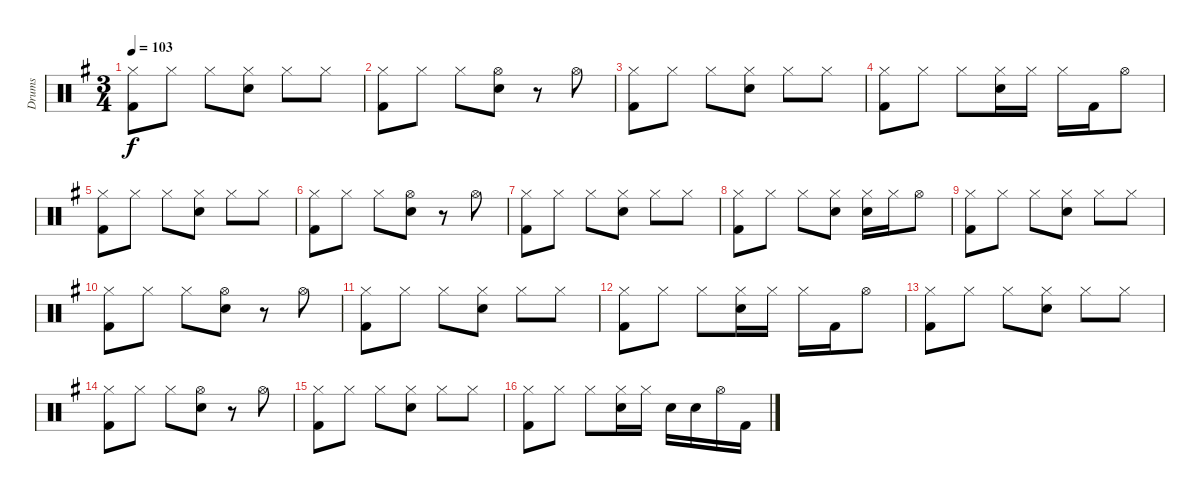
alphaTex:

\track ("Drums" "Drums") {instrument percussion}
\staff {score}
\articulation defaults
\ts (3 4)
\tempo 103
\clef neutral
\ks eminor
("Hi-Hat (closed)" "Kick (hit) 2").8{dy f} "Hi-Hat (closed)".8 "Hi-Hat (closed)".8 ("Hi-Hat (closed)" "Electric Snare (hit)").8 "Hi-Hat (closed)".8 "Hi-Hat (closed)".8 |
("Hi-Hat (closed)" "Kick (hit) 2").8 "Hi-Hat (closed)".8 "Hi-Hat (closed)".8 ("Hi-Hat (open)" "Electric Snare (hit)").8 r.8 "Hi-Hat (open)".8 |
("Hi-Hat (closed)" "Kick (hit) 2").8 "Hi-Hat (closed)".8 "Hi-Hat (closed)".8 ("Hi-Hat (closed)" "Electric Snare (hit)").8 "Hi-Hat (closed)".8 "Hi-Hat (closed)".8 |
("Hi-Hat (closed)" "Kick (hit) 2").8 "Hi-Hat (closed)".8 "Hi-Hat (closed)".8 ("Hi-Hat (closed)" "Electric Snare (hit)").16 "Hi-Hat (closed)".16 "Hi-Hat (closed)".16 "Kick (hit) 2".16 "Hi-Hat (open)".8 |
("Hi-Hat (closed)" "Kick (hit) 2").8 "Hi-Hat (closed)".8 "Hi-Hat (closed)".8 ("Hi-Hat (closed)" "Electric Snare (hit)").8 "Hi-Hat (closed)".8 "Hi-Hat (closed)".8 |
("Hi-Hat (closed)" "Kick (hit) 2").8 "Hi-Hat (closed)".8 "Hi-Hat (closed)".8 ("Hi-Hat (open)" "Electric Snare (hit)").8 r.8 "Hi-Hat (open)".8 |
("Hi-Hat (closed)" "Kick (hit) 2").8 "Hi-Hat (closed)".8 "Hi-Hat (closed)".8 ("Hi-Hat (closed)" "Electric Snare (hit)").8 "Hi-Hat (closed)".8 "Hi-Hat (closed)".8 |
("Hi-Hat (closed)" "Kick (hit) 2").8 "Hi-Hat (closed)".8 "Hi-Hat (closed)".8 ("Hi-Hat (closed)" "Electric Snare (hit)").8 ("Hi-Hat (closed)" "Electric Snare (hit)").16 "Hi-Hat (closed)".16 "Hi-Hat (open)".8 |
("Hi-Hat (closed)" "Kick (hit) 2").8 "Hi-Hat (closed)".8 "Hi-Hat (closed)".8 ("Hi-Hat (closed)" "Electric Snare (hit)").8 "Hi-Hat (closed)".8 "Hi-Hat (closed)".8 |
("Hi-Hat (closed)" "Kick (hit) 2").8 "Hi-Hat (closed)".8 "Hi-Hat (closed)".8 ("Hi-Hat (open)" "Electric Snare (hit)").8 r.8 "Hi-Hat (open)".8 |
("Hi-Hat (closed)" "Kick (hit) 2").8 "Hi-Hat (closed)".8 "Hi-Hat (closed)".8 ("Hi-Hat (closed)" "Electric Snare (hit)").8 "Hi-Hat (closed)".8 "Hi-Hat (closed)".8 |
("Hi-Hat (closed)" "Kick (hit) 2").8 "Hi-Hat (closed)".8 "Hi-Hat (closed)".8 ("Hi-Hat (closed)" "Electric Snare (hit)").16 "Hi-Hat (closed)".16 "Hi-Hat (closed)".16 "Kick (hit) 2".16 "Hi-Hat (open)".8 |
("Hi-Hat (closed)" "Kick (hit) 2").8 "Hi-Hat (closed)".8 "Hi-Hat (closed)".8 ("Hi-Hat (closed)" "Electric Snare (hit)").8 "Hi-Hat (closed)".8 "Hi-Hat (closed)".8 |
("Hi-Hat (closed)" "Kick (hit) 2").8 "Hi-Hat (closed)".8 "Hi-Hat (closed)".8 ("Hi-Hat (open)" "Electric Snare (hit)").8 r.8 "Hi-Hat (open)".8 |
("Hi-Hat (closed)" "Kick (hit) 2").8 "Hi-Hat (closed)".8 "Hi-Hat (closed)".8 ("Hi-Hat (closed)" "Electric Snare (hit)").8 "Hi-Hat (closed)".8 "Hi-Hat (closed)".8 |
("Hi-Hat (closed)" "Kick (hit) 2").8 "Hi-Hat (closed)".8 "Hi-Hat (closed)".8 ("Hi-Hat (closed)" "Electric Snare (hit)").16 "Hi-Hat (closed)".16 "Electric Snare (hit)".16 "Electric Snare (hit)".16 "Hi-Hat (open)".16 "Kick (hit) 2".16
